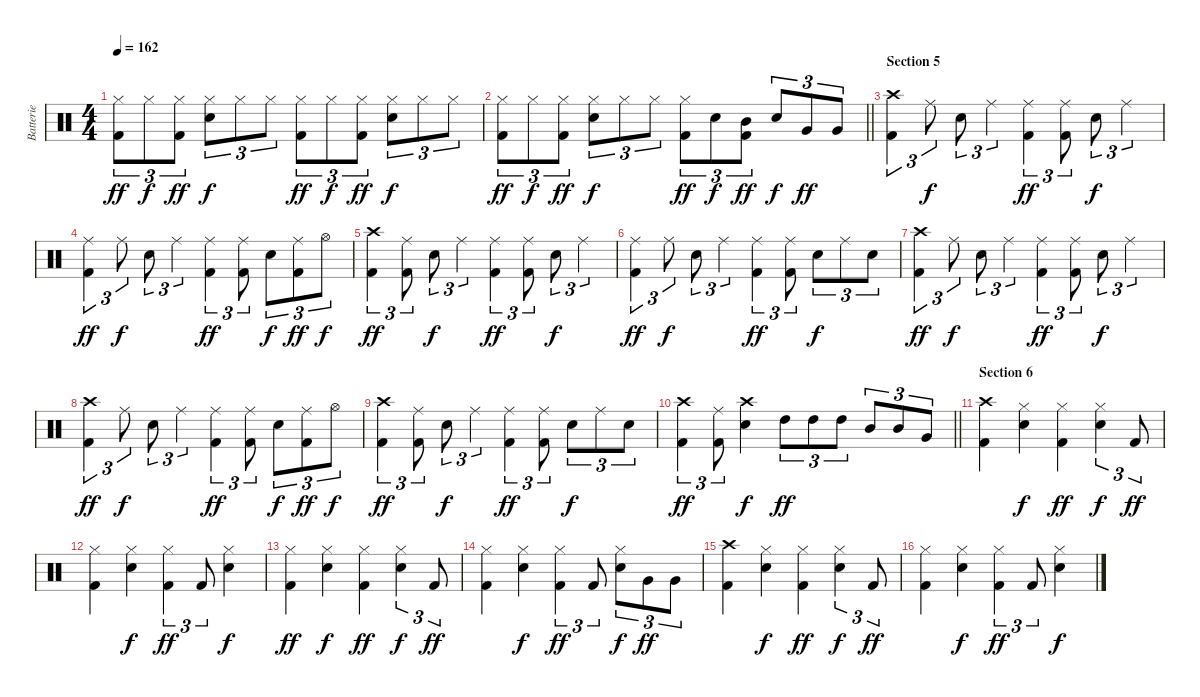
\track ("Batterie" "Batterie") {instrument percussion}
\staff {score}
\articulation defaults
\ts (4 4)
\tempo 162
\clef neutral
\ks c
("Hi-Hat (closed)" "Kick (hit) 2").8{tu (3 2) dy ff} "Hi-Hat (closed)".8{tu (3 2) dy f} ("Hi-Hat (closed)" "Kick (hit) 2").8{tu (3 2) dy ff} ("Hi-Hat (closed)" "Snare (hit) 2").8{tu (3 2) dy f} "Hi-Hat (closed)".8{tu (3 2)} "Hi-Hat (closed)".8{tu (3 2)} ("Hi-Hat (closed)" "Kick (hit) 2").8{tu (3 2) dy ff} "Hi-Hat (closed)".8{tu (3 2) dy f} ("Hi-Hat (closed)" "Kick (hit) 2").8{tu (3 2) dy ff} ("Hi-Hat (closed)" "Snare (hit) 2").8{tu (3 2) dy f} "Hi-Hat (closed)".8{tu (3 2)} "Hi-Hat (closed)".8{tu (3 2)} |
\barLineRight lightlight
("Hi-Hat (closed)" "Kick (hit) 2").8{tu (3 2) dy ff} "Hi-Hat (closed)".8{tu (3 2) dy f} ("Hi-Hat (closed)" "Kick (hit) 2").8{tu (3 2) dy ff} ("Hi-Hat (closed)" "Snare (hit) 2").8{tu (3 2) dy f} "Hi-Hat (closed)".8{tu (3 2)} "Hi-Hat (closed)".8{tu (3 2)} ("Hi-Hat (closed)" "Kick (hit) 2").8{tu (3 2) dy ff} "Snare (hit) 2".8{tu (3 2) dy f} ("Mid Tom (hit)" "Kick (hit) 2").8{tu (3 2) dy ff} "Snare (hit) 2".8{tu (3 2) dy f} "Very Low Tom (hit)".8{tu (3 2) dy ff} "Very Low Tom (hit)".8{tu (3 2)} |
\section ("" "Section 5")
("Crash high (hit)" "Kick (hit) 2").4{tu (3 2)} "Ride (middle)".8{tu (3 2) dy f} "Snare (hit) 2".8{tu (3 2)} "Ride (middle)".4{tu (3 2)} ("Ride (middle)" "Kick (hit) 2").4{tu (3 2) dy ff} ("Ride (middle)" "Kick (hit) 2").8{tu (3 2)} "Snare (hit) 2".8{tu (3 2) dy f} "Ride (middle)".4{tu (3 2)} |
("Ride (middle)" "Kick (hit) 2").4{tu (3 2) dy ff} "Ride (middle)".8{tu (3 2) dy f} "Snare (hit) 2".8{tu (3 2)} "Ride (middle)".4{tu (3 2)} ("Ride (middle)" "Kick (hit) 2").4{tu (3 2) dy ff} ("Ride (middle)" "Kick (hit) 2").8{tu (3 2)} "Snare (hit) 2".8{tu (3 2) dy f} ("Ride (middle)" "Kick (hit) 2").8{tu (3 2) dy ff} "Hi-Hat (open)".8{tu (3 2) dy f} |
("Crash high (hit)" "Kick (hit) 2").4{tu (3 2) dy ff} ("Ride (middle)" "Kick (hit) 2").8{tu (3 2)} "Snare (hit) 2".8{tu (3 2) dy f} "Ride (middle)".4{tu (3 2)} ("Ride (middle)" "Kick (hit) 2").4{tu (3 2) dy ff} ("Ride (middle)" "Kick (hit) 2").8{tu (3 2)} "Snare (hit) 2".8{tu (3 2) dy f} "Ride (middle)".4{tu (3 2)} |
("Ride (middle)" "Kick (hit) 2").4{tu (3 2) dy ff} "Ride (middle)".8{tu (3 2) dy f} "Snare (hit) 2".8{tu (3 2)} "Ride (middle)".4{tu (3 2)} ("Ride (middle)" "Kick (hit) 2").4{tu (3 2) dy ff} ("Ride (middle)" "Kick (hit) 2").8{tu (3 2)} "Snare (hit) 2".8{tu (3 2) dy f} "Ride (middle)".8{tu (3 2)} "Snare (hit) 2".8{tu (3 2)} |
("Crash high (hit)" "Kick (hit) 2").4{tu (3 2) dy ff} "Ride (middle)".8{tu (3 2) dy f} "Snare (hit) 2".8{tu (3 2)} "Ride (middle)".4{tu (3 2)} ("Ride (middle)" "Kick (hit) 2").4{tu (3 2) dy ff} ("Ride (middle)" "Kick (hit) 2").8{tu (3 2)} "Snare (hit) 2".8{tu (3 2) dy f} "Ride (middle)".4{tu (3 2)} |
("Crash high (hit)" "Kick (hit) 2").4{tu (3 2) dy ff} "Ride (middle)".8{tu (3 2) dy f} "Snare (hit) 2".8{tu (3 2)} "Ride (middle)".4{tu (3 2)} ("Ride (middle)" "Kick (hit) 2").4{tu (3 2) dy ff} ("Ride (middle)" "Kick (hit) 2").8{tu (3 2)} "Snare (hit) 2".8{tu (3 2) dy f} ("Ride (middle)" "Kick (hit) 2").8{tu (3 2) dy ff} "Hi-Hat (open)".8{tu (3 2) dy f} |
("Crash high (hit)" "Kick (hit) 2").4{tu (3 2) dy ff} ("Ride (middle)" "Kick (hit) 2").8{tu (3 2)} "Snare (hit) 2".8{tu (3 2) dy f} "Ride (middle)".4{tu (3 2)} ("Ride (middle)" "Kick (hit) 2").4{tu (3 2) dy ff} ("Ride (middle)" "Kick (hit) 2").8{tu (3 2)} "Snare (hit) 2".8{tu (3 2) dy f} "Ride (middle)".8{tu (3 2)} "Snare (hit) 2".8{tu (3 2)} |
\barLineRight lightlight
("Crash high (hit)" "Kick (hit) 2").4{tu (3 2) dy ff} ("Ride (middle)" "Kick (hit) 2").8{tu (3 2)} ("Crash high (hit)" "Snare (hit) 2").4{dy f} "High Tom (hit)".8{tu (3 2) dy ff} "High Tom (hit)".8{tu (3 2)} "High Tom (hit)".8{tu (3 2)} "Mid Tom (hit)".8{tu (3 2)} "Mid Tom (hit)".8{tu (3 2)} "Very Low Tom (hit)".8{tu (3 2)} |
\section ("" "Section 6")
("Crash high (hit)" "Kick (hit) 2").4 ("Hi-Hat (closed)" "Snare (hit) 2").4{dy f} ("Hi-Hat (closed)" "Kick (hit) 2").4{dy ff} ("Hi-Hat (closed)" "Snare (hit) 2").4{tu (3 2) dy f} "Kick (hit) 2".8{tu (3 2) dy ff} |
("Hi-Hat (closed)" "Kick (hit) 2").4 ("Hi-Hat (closed)" "Snare (hit) 2").4{dy f} ("Hi-Hat (closed)" "Kick (hit) 2").4{tu (3 2) dy ff} "Kick (hit) 2".8{tu (3 2)} ("Hi-Hat (closed)" "Snare (hit) 2").4{dy f} |
("Hi-Hat (closed)" "Kick (hit) 2").4{dy ff} ("Hi-Hat (closed)" "Snare (hit) 2").4{dy f} ("Hi-Hat (closed)" "Kick (hit) 2").4{dy ff} ("Hi-Hat (closed)" "Snare (hit) 2").4{tu (3 2) dy f} "Kick (hit) 2".8{tu (3 2) dy ff} |
("Hi-Hat (closed)" "Kick (hit) 2").4 ("Hi-Hat (closed)" "Snare (hit) 2").4{dy f} ("Hi-Hat (closed)" "Kick (hit) 2").4{tu (3 2) dy ff} "Kick (hit) 2".8{tu (3 2)} ("Hi-Hat (closed)" "Snare (hit) 2").8{tu (3 2) dy f} "Very Low Tom (hit)".8{tu (3 2) dy ff} "Very Low Tom (hit)".8{tu (3 2)} |
("Crash high (hit)" "Kick (hit) 2").4 ("Hi-Hat (closed)" "Snare (hit) 2").4{dy f} ("Hi-Hat (closed)" "Kick (hit) 2").4{dy ff} ("Hi-Hat (closed)" "Snare (hit) 2").4{tu (3 2) dy f} "Kick (hit) 2".8{tu (3 2) dy ff} |
("Hi-Hat (closed)" "Kick (hit) 2").4 ("Hi-Hat (closed)" "Snare (hit) 2").4{dy f} ("Hi-Hat (closed)" "Kick (hit) 2").4{tu (3 2) dy ff} "Kick (hit) 2".8{tu (3 2)} ("Hi-Hat (closed)" "Snare (hit) 2").4{dy f}
